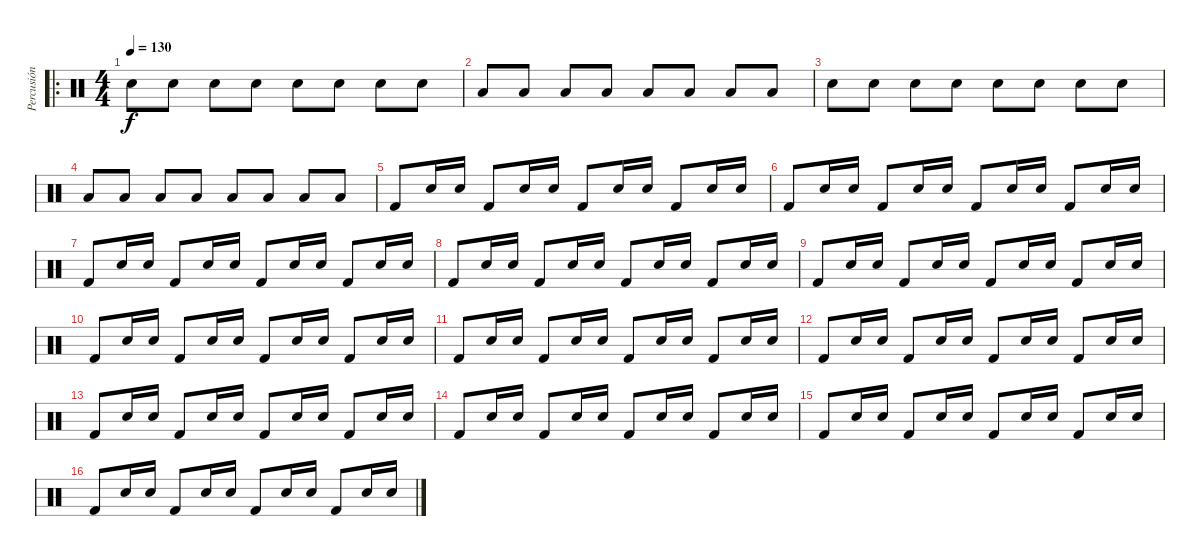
\track ("Percusión" "Percusión") {instrument percussion}
\staff {score}
\articulation defaults
\ro
\ts (4 4)
\tempo 130
\clef neutral
\ks c "Snare (hit) 2".8{dy f} "Snare (hit) 2".8 "Snare (hit) 2".8 "Snare (hit) 2".8 "Snare (hit) 2".8 "Snare (hit) 2".8 "Snare (hit) 2".8 "Snare (hit) 2".8
|
"Low Tom (hit)".8 "Low Tom (hit)".8 "Low Tom (hit)".8 "Low Tom (hit)".8 "Low Tom (hit)".8 "Low Tom (hit)".8 "Low Tom (hit)".8 "Low Tom (hit)".8 |
"Snare (hit) 2".8 "Snare (hit) 2".8 "Snare (hit) 2".8 "Snare (hit) 2".8 "Snare (hit) 2".8 "Snare (hit) 2".8 "Snare (hit) 2".8 "Snare (hit) 2".8 |
"Low Tom (hit)".8 "Low Tom (hit)".8 "Low Tom (hit)".8 "Low Tom (hit)".8 "Low Tom (hit)".8 "Low Tom (hit)".8 "Low Tom (hit)".8 "Low Tom (hit)".8 |
"Kick (hit) 2".8 "Snare (hit) 2".16 "Snare (hit) 2".16 "Kick (hit) 2".8 "Snare (hit) 2".16 "Snare (hit) 2".16 "Kick (hit) 2".8 "Snare (hit) 2".16 "Snare (hit) 2".16 "Kick (hit) 2".8 "Snare (hit) 2".16 "Snare (hit) 2".16 |
"Kick (hit) 2".8 "Snare (hit) 2".16 "Snare (hit) 2".16 "Kick (hit) 2".8 "Snare (hit) 2".16 "Snare (hit) 2".16 "Kick (hit) 2".8 "Snare (hit) 2".16 "Snare (hit) 2".16 "Kick (hit) 2".8 "Snare (hit) 2".16 "Snare (hit) 2".16 |
"Kick (hit) 2".8 "Snare (hit) 2".16 "Snare (hit) 2".16 "Kick (hit) 2".8 "Snare (hit) 2".16 "Snare (hit) 2".16 "Kick (hit) 2".8 "Snare (hit) 2".16 "Snare (hit) 2".16 "Kick (hit) 2".8 "Snare (hit) 2".16 "Snare (hit) 2".16 |
"Kick (hit) 2".8 "Snare (hit) 2".16 "Snare (hit) 2".16 "Kick (hit) 2".8 "Snare (hit) 2".16 "Snare (hit) 2".16 "Kick (hit) 2".8 "Snare (hit) 2".16 "Snare (hit) 2".16 "Kick (hit) 2".8 "Snare (hit) 2".16 "Snare (hit) 2".16 |
"Kick (hit) 2".8 "Snare (hit) 2".16 "Snare (hit) 2".16 "Kick (hit) 2".8 "Snare (hit) 2".16 "Snare (hit) 2".16 "Kick (hit) 2".8 "Snare (hit) 2".16 "Snare (hit) 2".16 "Kick (hit) 2".8 "Snare (hit) 2".16 "Snare (hit) 2".16 |
"Kick (hit) 2".8 "Snare (hit) 2".16 "Snare (hit) 2".16 "Kick (hit) 2".8 "Snare (hit) 2".16 "Snare (hit) 2".16 "Kick (hit) 2".8 "Snare (hit) 2".16 "Snare (hit) 2".16 "Kick (hit) 2".8 "Snare (hit) 2".16 "Snare (hit) 2".16 |
"Kick (hit) 2".8 "Snare (hit) 2".16 "Snare (hit) 2".16 "Kick (hit) 2".8 "Snare (hit) 2".16 "Snare (hit) 2".16 "Kick (hit) 2".8 "Snare (hit) 2".16 "Snare (hit) 2".16 "Kick (hit) 2".8 "Snare (hit) 2".16 "Snare (hit) 2".16 |
"Kick (hit) 2".8 "Snare (hit) 2".16 "Snare (hit) 2".16 "Kick (hit) 2".8 "Snare (hit) 2".16 "Snare (hit) 2".16 "Kick (hit) 2".8 "Snare (hit) 2".16 "Snare (hit) 2".16 "Kick (hit) 2".8 "Snare (hit) 2".16 "Snare (hit) 2".16 |
"Kick (hit) 2".8 "Snare (hit) 2".16 "Snare (hit) 2".16 "Kick (hit) 2".8 "Snare (hit) 2".16 "Snare (hit) 2".16 "Kick (hit) 2".8 "Snare (hit) 2".16 "Snare (hit) 2".16 "Kick (hit) 2".8 "Snare (hit) 2".16 "Snare (hit) 2".16 |
"Kick (hit) 2".8 "Snare (hit) 2".16 "Snare (hit) 2".16 "Kick (hit) 2".8 "Snare (hit) 2".16 "Snare (hit) 2".16 "Kick (hit) 2".8 "Snare (hit) 2".16 "Snare (hit) 2".16 "Kick (hit) 2".8 "Snare (hit) 2".16 "Snare (hit) 2".16 |
"Kick (hit) 2".8 "Snare (hit) 2".16 "Snare (hit) 2".16 "Kick (hit) 2".8 "Snare (hit) 2".16 "Snare (hit) 2".16 "Kick (hit) 2".8 "Snare (hit) 2".16 "Snare (hit) 2".16 "Kick (hit) 2".8 "Snare (hit) 2".16 "Snare (hit) 2".16 |
"Kick (hit) 2".8 "Snare (hit) 2".16 "Snare (hit) 2".16 "Kick (hit) 2".8 "Snare (hit) 2".16 "Snare (hit) 2".16 "Kick (hit) 2".8 "Snare (hit) 2".16 "Snare (hit) 2".16 "Kick (hit) 2".8 "Snare (hit) 2".16 "Snare (hit) 2".16
